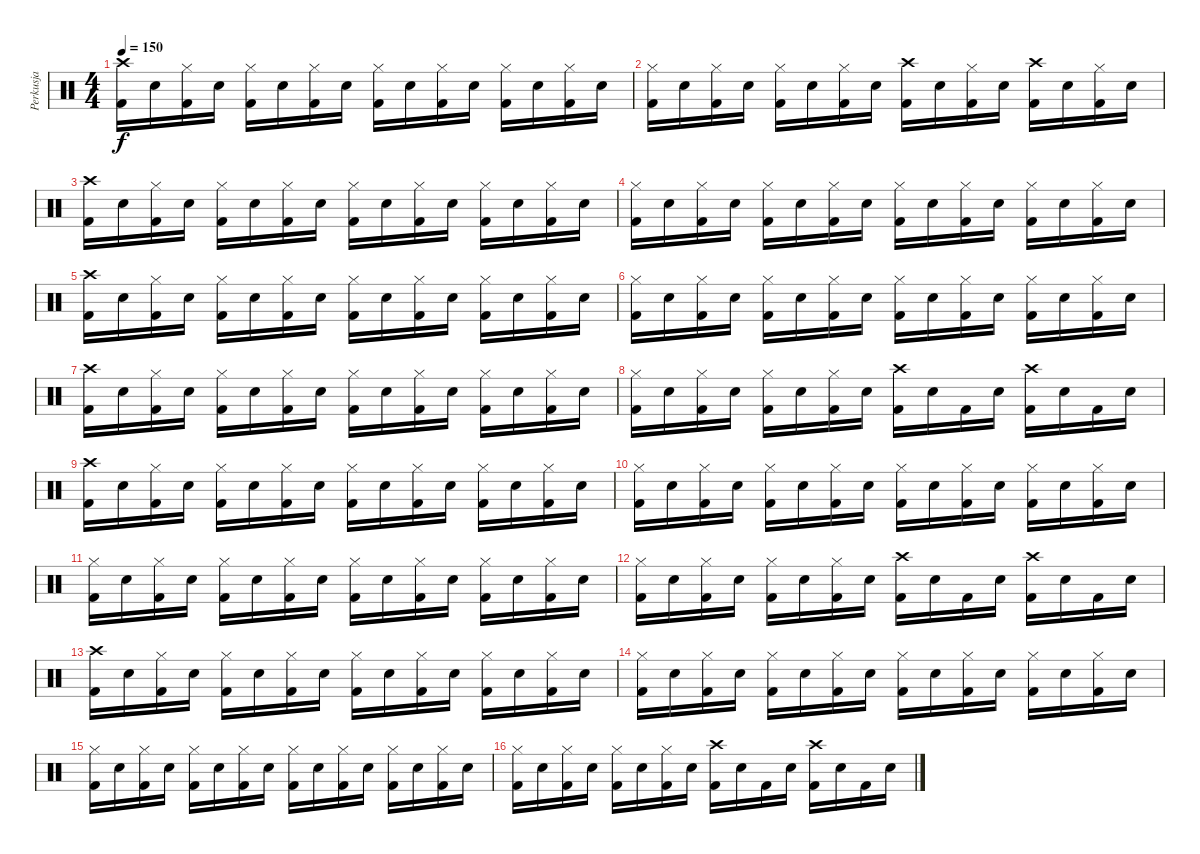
\track ("Perkusja" "Perkusja") {instrument percussion}
\staff {score}
\articulation defaults
\ts (4 4)
\tempo 150
\clef neutral
\ks c
("Crash high (hit)" "Kick (hit) 2").16{dy f} "Snare (hit) 2".16 ("Hi-Hat (closed)" "Kick (hit) 2").16 "Snare (hit) 2".16 ("Hi-Hat (closed)" "Kick (hit) 2").16 "Snare (hit) 2".16 ("Hi-Hat (closed)" "Kick (hit) 2").16 "Snare (hit) 2".16 ("Hi-Hat (closed)" "Kick (hit) 2").16 "Snare (hit) 2".16 ("Hi-Hat (closed)" "Kick (hit) 2").16 "Snare (hit) 2".16 ("Hi-Hat (closed)" "Kick (hit) 2").16 "Snare (hit) 2".16 ("Hi-Hat (closed)" "Kick (hit) 2").16 "Snare (hit) 2".16 |
("Hi-Hat (closed)" "Kick (hit) 2").16 "Snare (hit) 2".16 ("Hi-Hat (closed)" "Kick (hit) 2").16 "Snare (hit) 2".16 ("Hi-Hat (closed)" "Kick (hit) 2").16 "Snare (hit) 2".16 ("Hi-Hat (closed)" "Kick (hit) 2").16 "Snare (hit) 2".16 ("Crash high (hit)" "Kick (hit) 2").16 "Snare (hit) 2".16 ("Hi-Hat (closed)" "Kick (hit) 2").16 "Snare (hit) 2".16 ("Crash high (hit)" "Kick (hit) 2").16 "Snare (hit) 2".16 ("Hi-Hat (closed)" "Kick (hit) 2").16 "Snare (hit) 2".16 |
("Crash high (hit)" "Kick (hit) 2").16 "Snare (hit) 2".16 ("Hi-Hat (closed)" "Kick (hit) 2").16 "Snare (hit) 2".16 ("Hi-Hat (closed)" "Kick (hit) 2").16 "Snare (hit) 2".16 ("Hi-Hat (closed)" "Kick (hit) 2").16 "Snare (hit) 2".16 ("Hi-Hat (closed)" "Kick (hit) 2").16 "Snare (hit) 2".16 ("Hi-Hat (closed)" "Kick (hit) 2").16 "Snare (hit) 2".16 ("Hi-Hat (closed)" "Kick (hit) 2").16 "Snare (hit) 2".16 ("Hi-Hat (closed)" "Kick (hit) 2").16 "Snare (hit) 2".16 |
("Hi-Hat (closed)" "Kick (hit) 2").16 "Snare (hit) 2".16 ("Hi-Hat (closed)" "Kick (hit) 2").16 "Snare (hit) 2".16 ("Hi-Hat (closed)" "Kick (hit) 2").16 "Snare (hit) 2".16 ("Hi-Hat (closed)" "Kick (hit) 2").16 "Snare (hit) 2".16 ("Hi-Hat (closed)" "Kick (hit) 2").16 "Snare (hit) 2".16 ("Hi-Hat (closed)" "Kick (hit) 2").16 "Snare (hit) 2".16 ("Hi-Hat (closed)" "Kick (hit) 2").16 "Snare (hit) 2".16 ("Hi-Hat (closed)" "Kick (hit) 2").16 "Snare (hit) 2".16 |
("Crash high (hit)" "Kick (hit) 2").16 "Snare (hit) 2".16 ("Hi-Hat (closed)" "Kick (hit) 2").16 "Snare (hit) 2".16 ("Hi-Hat (closed)" "Kick (hit) 2").16 "Snare (hit) 2".16 ("Hi-Hat (closed)" "Kick (hit) 2").16 "Snare (hit) 2".16 ("Hi-Hat (closed)" "Kick (hit) 2").16 "Snare (hit) 2".16 ("Hi-Hat (closed)" "Kick (hit) 2").16 "Snare (hit) 2".16 ("Hi-Hat (closed)" "Kick (hit) 2").16 "Snare (hit) 2".16 ("Hi-Hat (closed)" "Kick (hit) 2").16 "Snare (hit) 2".16 |
("Hi-Hat (closed)" "Kick (hit) 2").16 "Snare (hit) 2".16 ("Hi-Hat (closed)" "Kick (hit) 2").16 "Snare (hit) 2".16 ("Hi-Hat (closed)" "Kick (hit) 2").16 "Snare (hit) 2".16 ("Hi-Hat (closed)" "Kick (hit) 2").16 "Snare (hit) 2".16 ("Hi-Hat (closed)" "Kick (hit) 2").16 "Snare (hit) 2".16 ("Hi-Hat (closed)" "Kick (hit) 2").16 "Snare (hit) 2".16 ("Hi-Hat (closed)" "Kick (hit) 2").16 "Snare (hit) 2".16 ("Hi-Hat (closed)" "Kick (hit) 2").16 "Snare (hit) 2".16 |
("Crash high (hit)" "Kick (hit) 2").16 "Snare (hit) 2".16 ("Hi-Hat (closed)" "Kick (hit) 2").16 "Snare (hit) 2".16 ("Hi-Hat (closed)" "Kick (hit) 2").16 "Snare (hit) 2".16 ("Hi-Hat (closed)" "Kick (hit) 2").16 "Snare (hit) 2".16 ("Hi-Hat (closed)" "Kick (hit) 2").16 "Snare (hit) 2".16 ("Hi-Hat (closed)" "Kick (hit) 2").16 "Snare (hit) 2".16 ("Hi-Hat (closed)" "Kick (hit) 2").16 "Snare (hit) 2".16 ("Hi-Hat (closed)" "Kick (hit) 2").16 "Snare (hit) 2".16 |
("Hi-Hat (closed)" "Kick (hit) 2").16 "Snare (hit) 2".16 ("Hi-Hat (closed)" "Kick (hit) 2").16 "Snare (hit) 2".16 ("Hi-Hat (closed)" "Kick (hit) 2").16 "Snare (hit) 2".16 ("Hi-Hat (closed)" "Kick (hit) 2").16 "Snare (hit) 2".16 ("Crash high (hit)" "Kick (hit) 2").16 "Snare (hit) 2".16 "Kick (hit) 2".16 "Snare (hit) 2".16 ("Crash high (hit)" "Kick (hit) 2").16 "Snare (hit) 2".16 "Kick (hit) 2".16 "Snare (hit) 2".16 |
("Crash high (hit)" "Kick (hit) 2").16 "Snare (hit) 2".16 ("Hi-Hat (closed)" "Kick (hit) 2").16 "Snare (hit) 2".16 ("Hi-Hat (closed)" "Kick (hit) 2").16 "Snare (hit) 2".16 ("Hi-Hat (closed)" "Kick (hit) 2").16 "Snare (hit) 2".16 ("Hi-Hat (closed)" "Kick (hit) 2").16 "Snare (hit) 2".16 ("Hi-Hat (closed)" "Kick (hit) 2").16 "Snare (hit) 2".16 ("Hi-Hat (closed)" "Kick (hit) 2").16 "Snare (hit) 2".16 ("Hi-Hat (closed)" "Kick (hit) 2").16 "Snare (hit) 2".16 |
("Hi-Hat (closed)" "Kick (hit) 2").16 "Snare (hit) 2".16 ("Hi-Hat (closed)" "Kick (hit) 2").16 "Snare (hit) 2".16 ("Hi-Hat (closed)" "Kick (hit) 2").16 "Snare (hit) 2".16 ("Hi-Hat (closed)" "Kick (hit) 2").16 "Snare (hit) 2".16 ("Hi-Hat (closed)" "Kick (hit) 2").16 "Snare (hit) 2".16 ("Hi-Hat (closed)" "Kick (hit) 2").16 "Snare (hit) 2".16 ("Hi-Hat (closed)" "Kick (hit) 2").16 "Snare (hit) 2".16 ("Hi-Hat (closed)" "Kick (hit) 2").16 "Snare (hit) 2".16 |
("Hi-Hat (closed)" "Kick (hit) 2").16 "Snare (hit) 2".16 ("Hi-Hat (closed)" "Kick (hit) 2").16 "Snare (hit) 2".16 ("Hi-Hat (closed)" "Kick (hit) 2").16 "Snare (hit) 2".16 ("Hi-Hat (closed)" "Kick (hit) 2").16 "Snare (hit) 2".16 ("Hi-Hat (closed)" "Kick (hit) 2").16 "Snare (hit) 2".16 ("Hi-Hat (closed)" "Kick (hit) 2").16 "Snare (hit) 2".16 ("Hi-Hat (closed)" "Kick (hit) 2").16 "Snare (hit) 2".16 ("Hi-Hat (closed)" "Kick (hit) 2").16 "Snare (hit) 2".16 |
("Hi-Hat (closed)" "Kick (hit) 2").16 "Snare (hit) 2".16 ("Hi-Hat (closed)" "Kick (hit) 2").16 "Snare (hit) 2".16 ("Hi-Hat (closed)" "Kick (hit) 2").16 "Snare (hit) 2".16 ("Hi-Hat (closed)" "Kick (hit) 2").16 "Snare (hit) 2".16 ("Crash high (hit)" "Kick (hit) 2").16 "Snare (hit) 2".16 "Kick (hit) 2".16 "Snare (hit) 2".16 ("Crash high (hit)" "Kick (hit) 2").16 "Snare (hit) 2".16 "Kick (hit) 2".16 "Snare (hit) 2".16 |
("Crash high (hit)" "Kick (hit) 2").16 "Snare (hit) 2".16 ("Hi-Hat (closed)" "Kick (hit) 2").16 "Snare (hit) 2".16 ("Hi-Hat (closed)" "Kick (hit) 2").16 "Snare (hit) 2".16 ("Hi-Hat (closed)" "Kick (hit) 2").16 "Snare (hit) 2".16 ("Hi-Hat (closed)" "Kick (hit) 2").16 "Snare (hit) 2".16 ("Hi-Hat (closed)" "Kick (hit) 2").16 "Snare (hit) 2".16 ("Hi-Hat (closed)" "Kick (hit) 2").16 "Snare (hit) 2".16 ("Hi-Hat (closed)" "Kick (hit) 2").16 "Snare (hit) 2".16 |
("Hi-Hat (closed)" "Kick (hit) 2").16 "Snare (hit) 2".16 ("Hi-Hat (closed)" "Kick (hit) 2").16 "Snare (hit) 2".16 ("Hi-Hat (closed)" "Kick (hit) 2").16 "Snare (hit) 2".16 ("Hi-Hat (closed)" "Kick (hit) 2").16 "Snare (hit) 2".16 ("Hi-Hat (closed)" "Kick (hit) 2").16 "Snare (hit) 2".16 ("Hi-Hat (closed)" "Kick (hit) 2").16 "Snare (hit) 2".16 ("Hi-Hat (closed)" "Kick (hit) 2").16 "Snare (hit) 2".16 ("Hi-Hat (closed)" "Kick (hit) 2").16 "Snare (hit) 2".16 |
("Hi-Hat (closed)" "Kick (hit) 2").16 "Snare (hit) 2".16 ("Hi-Hat (closed)" "Kick (hit) 2").16 "Snare (hit) 2".16 ("Hi-Hat (closed)" "Kick (hit) 2").16 "Snare (hit) 2".16 ("Hi-Hat (closed)" "Kick (hit) 2").16 "Snare (hit) 2".16 ("Hi-Hat (closed)" "Kick (hit) 2").16 "Snare (hit) 2".16 ("Hi-Hat (closed)" "Kick (hit) 2").16 "Snare (hit) 2".16 ("Hi-Hat (closed)" "Kick (hit) 2").16 "Snare (hit) 2".16 ("Hi-Hat (closed)" "Kick (hit) 2").16 "Snare (hit) 2".16 |
("Hi-Hat (closed)" "Kick (hit) 2").16 "Snare (hit) 2".16 ("Hi-Hat (closed)" "Kick (hit) 2").16 "Snare (hit) 2".16 ("Hi-Hat (closed)" "Kick (hit) 2").16 "Snare (hit) 2".16 ("Hi-Hat (closed)" "Kick (hit) 2").16 "Snare (hit) 2".16 ("Crash high (hit)" "Kick (hit) 2").16 "Snare (hit) 2".16 "Kick (hit) 2".16 "Snare (hit) 2".16 ("Crash high (hit)" "Kick (hit) 2").16 "Snare (hit) 2".16 "Kick (hit) 2".16 "Snare (hit) 2".16
